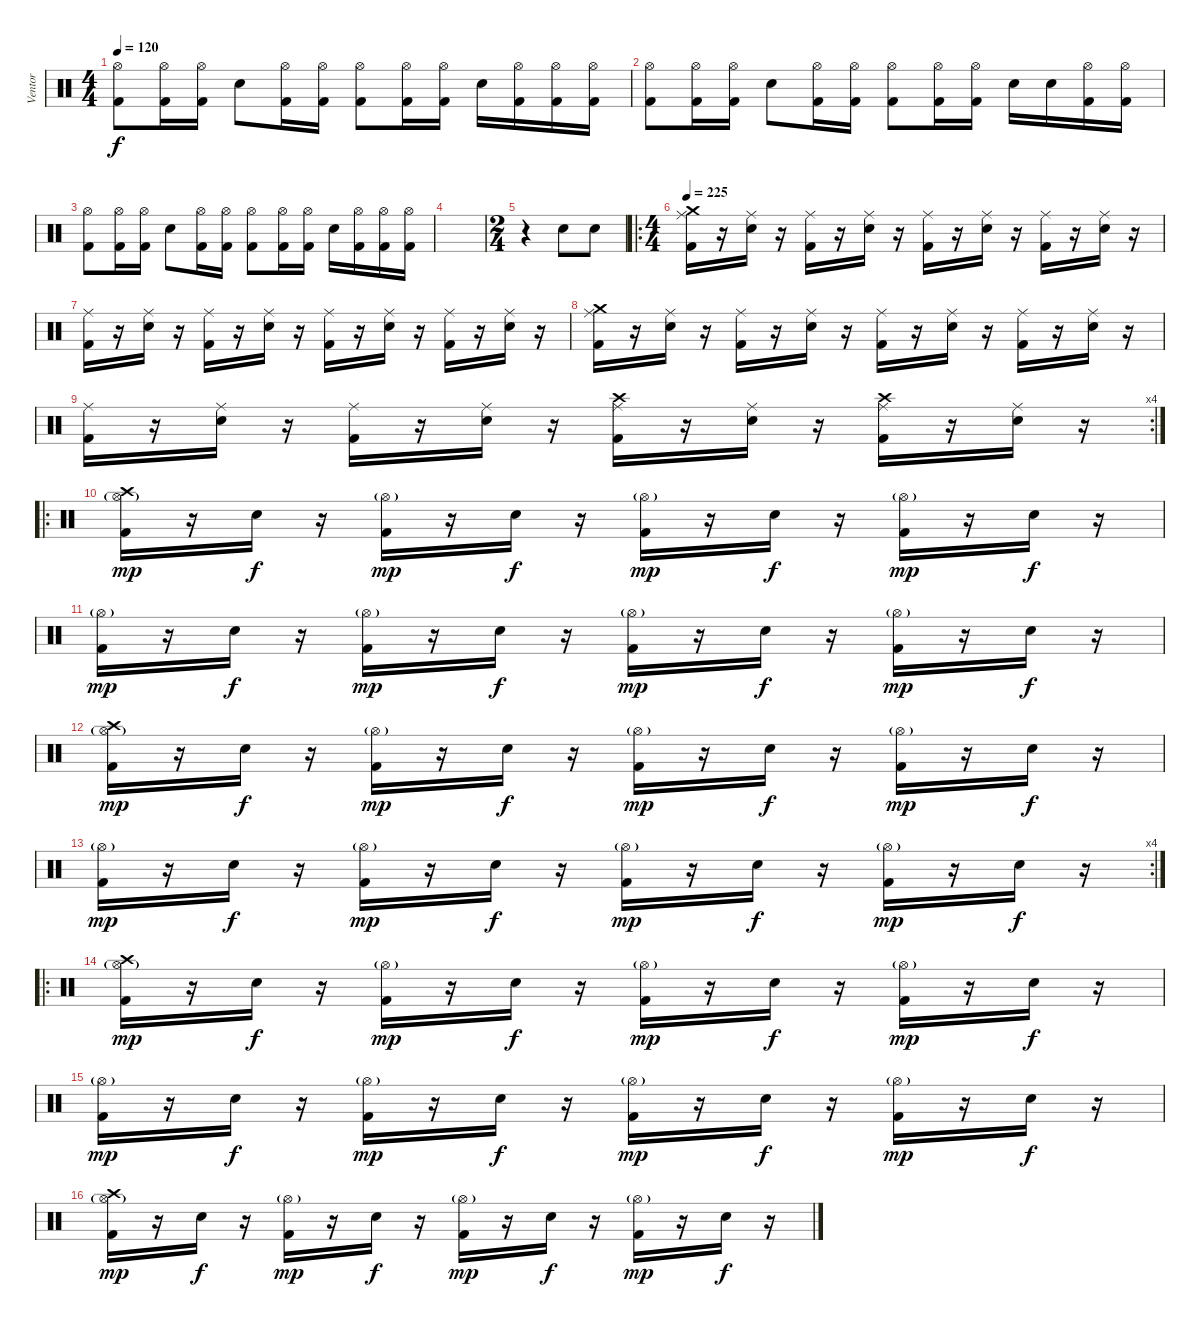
\track ("Ventor" "Ventor") {instrument percussion}
\staff {score}
\articulation defaults
\ts (4 4)
\tempo 120
\clef neutral
\ks c
("Hi-Hat (open)" "Kick (hit) 2").8{dy f} ("Hi-Hat (open)" "Kick (hit) 2").16 ("Hi-Hat (open)" "Kick (hit) 2").16 "Snare (hit) 2".8 ("Hi-Hat (open)" "Kick (hit) 2").16 ("Hi-Hat (open)" "Kick (hit) 2").16 ("Hi-Hat (open)" "Kick (hit) 2").8 ("Hi-Hat (open)" "Kick (hit) 2").16 ("Hi-Hat (open)" "Kick (hit) 2").16 "Snare (hit) 2".16 ("Hi-Hat (open)" "Kick (hit) 2").16 ("Hi-Hat (open)" "Kick (hit) 2").16 ("Hi-Hat (open)" "Kick (hit) 2").16 |
("Hi-Hat (open)" "Kick (hit) 2").8 ("Hi-Hat (open)" "Kick (hit) 2").16 ("Hi-Hat (open)" "Kick (hit) 2").16 "Snare (hit) 2".8 ("Hi-Hat (open)" "Kick (hit) 2").16 ("Hi-Hat (open)" "Kick (hit) 2").16 ("Hi-Hat (open)" "Kick (hit) 2").8 ("Hi-Hat (open)" "Kick (hit) 2").16 ("Hi-Hat (open)" "Kick (hit) 2").16 "Snare (hit) 2".16 "Snare (hit) 2".16 ("Hi-Hat (open)" "Kick (hit) 2").16 ("Hi-Hat (open)" "Kick (hit) 2").16 |
("Hi-Hat (open)" "Kick (hit) 2").8 ("Hi-Hat (open)" "Kick (hit) 2").16 ("Hi-Hat (open)" "Kick (hit) 2").16 "Snare (hit) 2".8 ("Hi-Hat (open)" "Kick (hit) 2").16 ("Hi-Hat (open)" "Kick (hit) 2").16 ("Hi-Hat (open)" "Kick (hit) 2").8 ("Hi-Hat (open)" "Kick (hit) 2").16 ("Hi-Hat (open)" "Kick (hit) 2").16 "Snare (hit) 2".16 ("Hi-Hat (open)" "Kick (hit) 2").16 ("Hi-Hat (open)" "Kick (hit) 2").16 ("Hi-Hat (open)" "Kick (hit) 2").16 |
|
\ts (2 4)
r.4 "Snare (hit) 2".8 "Snare (hit) 2".8 |
\ro
\ts (4 4)
\tempo 225
("Crash medium (hit)" "Ride (middle)" "Kick (hit) 2").16 r.16 ("Ride (middle)" "Snare (hit) 2").16 r.16 ("Ride (middle)" "Kick (hit) 2").16 r.16 ("Ride (middle)" "Snare (hit) 2").16 r.16 ("Ride (middle)" "Kick (hit) 2").16 r.16 ("Ride (middle)" "Snare (hit) 2").16 r.16 ("Ride (middle)" "Kick (hit) 2").16 r.16 ("Ride (middle)" "Snare (hit) 2").16 r.16 |
("Ride (middle)" "Kick (hit) 2").16 r.16 ("Ride (middle)" "Snare (hit) 2").16 r.16 ("Ride (middle)" "Kick (hit) 2").16 r.16 ("Ride (middle)" "Snare (hit) 2").16 r.16 ("Ride (middle)" "Kick (hit) 2").16 r.16 ("Ride (middle)" "Snare (hit) 2").16 r.16 ("Ride (middle)" "Kick (hit) 2").16 r.16 ("Ride (middle)" "Snare (hit) 2").16 r.16 |
("Crash medium (hit)" "Ride (middle)" "Kick (hit) 2").16 r.16 ("Ride (middle)" "Snare (hit) 2").16 r.16 ("Ride (middle)" "Kick (hit) 2").16 r.16 ("Ride (middle)" "Snare (hit) 2").16 r.16 ("Ride (middle)" "Kick (hit) 2").16 r.16 ("Ride (middle)" "Snare (hit) 2").16 r.16 ("Ride (middle)" "Kick (hit) 2").16 r.16 ("Ride (middle)" "Snare (hit) 2").16 r.16 |
\rc 4
("Ride (middle)" "Kick (hit) 2").16 r.16 ("Ride (middle)" "Snare (hit) 2").16 r.16 ("Ride (middle)" "Kick (hit) 2").16 r.16 ("Ride (middle)" "Snare (hit) 2").16 r.16 ("Crash high (hit)" "Ride (middle)" "Kick (hit) 2").16 r.16 ("Ride (middle)" "Snare (hit) 2").16 r.16 ("Crash high (hit)" "Ride (middle)" "Kick (hit) 2").16 r.16 ("Ride (middle)" "Snare (hit) 2").16 r.16 |
\ro
("Crash high (hit)" "Hi-Hat (open)"{g} "Kick (hit) 2").16{dy mp} r.16 "Snare (hit) 2".16{dy f} r.16 ("Hi-Hat (open)"{g} "Kick (hit) 2").16{dy mp} r.16 "Snare (hit) 2".16{dy f} r.16 ("Hi-Hat (open)"{g} "Kick (hit) 2").16{dy mp} r.16 "Snare (hit) 2".16{dy f} r.16 ("Hi-Hat (open)"{g} "Kick (hit) 2").16{dy mp} r.16 "Snare (hit) 2".16{dy f} r.16 |
("Hi-Hat (open)"{g} "Kick (hit) 2").16{dy mp} r.16 "Snare (hit) 2".16{dy f} r.16 ("Hi-Hat (open)"{g} "Kick (hit) 2").16{dy mp} r.16 "Snare (hit) 2".16{dy f} r.16 ("Hi-Hat (open)"{g} "Kick (hit) 2").16{dy mp} r.16 "Snare (hit) 2".16{dy f} r.16 ("Hi-Hat (open)"{g} "Kick (hit) 2").16{dy mp} r.16 "Snare (hit) 2".16{dy f} r.16 |
("Crash high (hit)" "Hi-Hat (open)"{g} "Kick (hit) 2").16{dy mp} r.16 "Snare (hit) 2".16{dy f} r.16 ("Hi-Hat (open)"{g} "Kick (hit) 2").16{dy mp} r.16 "Snare (hit) 2".16{dy f} r.16 ("Hi-Hat (open)"{g} "Kick (hit) 2").16{dy mp} r.16 "Snare (hit) 2".16{dy f} r.16 ("Hi-Hat (open)"{g} "Kick (hit) 2").16{dy mp} r.16 "Snare (hit) 2".16{dy f} r.16 |
\rc 4
("Hi-Hat (open)"{g} "Kick (hit) 2").16{dy mp} r.16 "Snare (hit) 2".16{dy f} r.16 ("Hi-Hat (open)"{g} "Kick (hit) 2").16{dy mp} r.16 "Snare (hit) 2".16{dy f} r.16 ("Hi-Hat (open)"{g} "Kick (hit) 2").16{dy mp} r.16 "Snare (hit) 2".16{dy f} r.16 ("Hi-Hat (open)"{g} "Kick (hit) 2").16{dy mp} r.16 "Snare (hit) 2".16{dy f} r.16 |
\ro
("Crash high (hit)" "Hi-Hat (open)"{g} "Kick (hit) 2").16{dy mp} r.16 "Snare (hit) 2".16{dy f} r.16 ("Hi-Hat (open)"{g} "Kick (hit) 2").16{dy mp} r.16 "Snare (hit) 2".16{dy f} r.16 ("Hi-Hat (open)"{g} "Kick (hit) 2").16{dy mp} r.16 "Snare (hit) 2".16{dy f} r.16 ("Hi-Hat (open)"{g} "Kick (hit) 2").16{dy mp} r.16 "Snare (hit) 2".16{dy f} r.16 |
("Hi-Hat (open)"{g} "Kick (hit) 2").16{dy mp} r.16 "Snare (hit) 2".16{dy f} r.16 ("Hi-Hat (open)"{g} "Kick (hit) 2").16{dy mp} r.16 "Snare (hit) 2".16{dy f} r.16 ("Hi-Hat (open)"{g} "Kick (hit) 2").16{dy mp} r.16 "Snare (hit) 2".16{dy f} r.16 ("Hi-Hat (open)"{g} "Kick (hit) 2").16{dy mp} r.16 "Snare (hit) 2".16{dy f} r.16 |
("Crash high (hit)" "Hi-Hat (open)"{g} "Kick (hit) 2").16{dy mp} r.16 "Snare (hit) 2".16{dy f} r.16 ("Hi-Hat (open)"{g} "Kick (hit) 2").16{dy mp} r.16 "Snare (hit) 2".16{dy f} r.16 ("Hi-Hat (open)"{g} "Kick (hit) 2").16{dy mp} r.16 "Snare (hit) 2".16{dy f} r.16 ("Hi-Hat (open)"{g} "Kick (hit) 2").16{dy mp} r.16 "Snare (hit) 2".16{dy f} r.16
